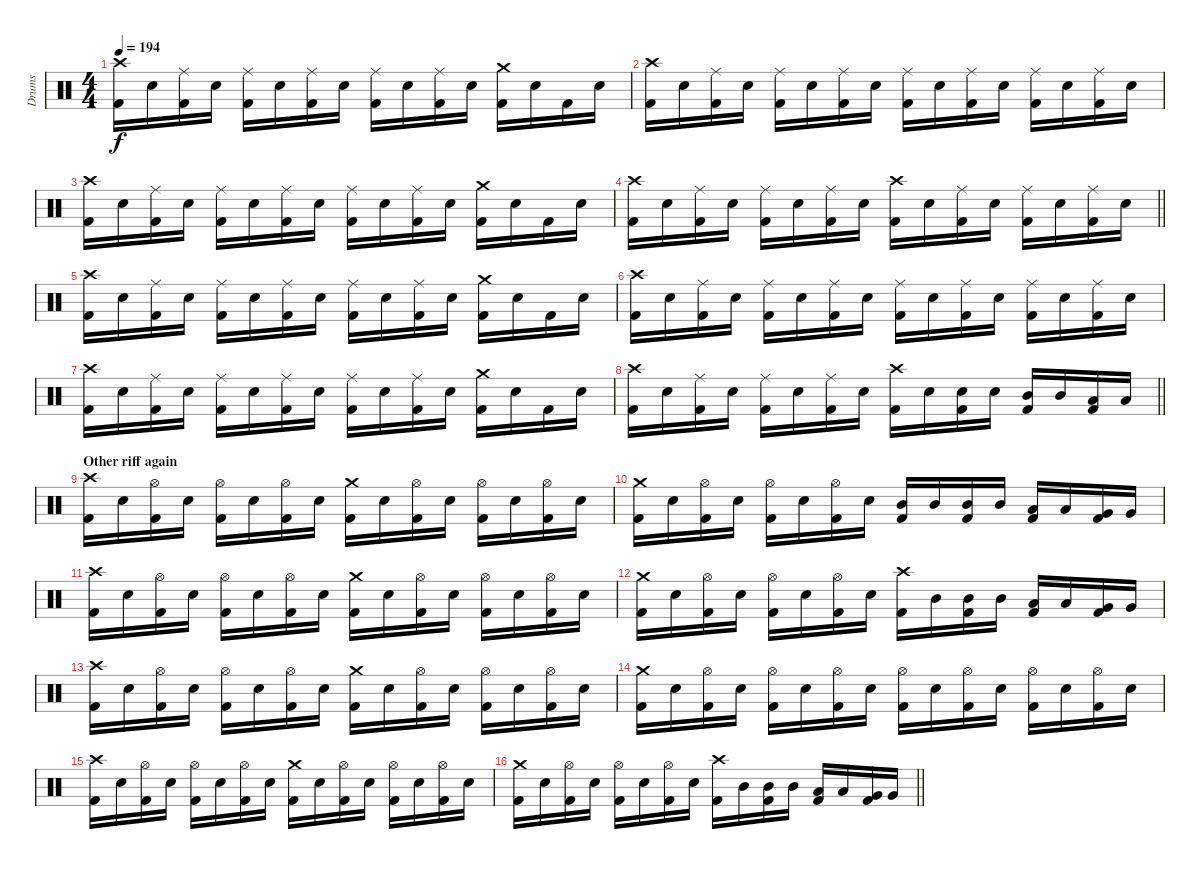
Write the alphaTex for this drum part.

\track ("Drums" "Drums") {instrument percussion}
\staff {score}
\articulation defaults
\ts (4 4)
\tempo 194
\clef neutral
\ks c
("Crash high (hit)" "Kick (hit) 2").16{dy f} "Electric Snare (hit)".16 ("Ride (middle)" "Kick (hit) 2").16 "Electric Snare (hit)".16 ("Ride (middle)" "Kick (hit) 2").16 "Electric Snare (hit)".16 ("Ride (middle)" "Kick (hit) 2").16 "Electric Snare (hit)".16 ("Ride (middle)" "Kick (hit) 2").16 "Electric Snare (hit)".16 ("Ride (middle)" "Kick (hit) 2").16 "Electric Snare (hit)".16 ("Crash medium (hit)" "Kick (hit) 2").16 "Electric Snare (hit)".16 "Kick (hit) 2".16 "Electric Snare (hit)".16 |
("Crash high (hit)" "Kick (hit) 2").16 "Electric Snare (hit)".16 ("Ride (middle)" "Kick (hit) 2").16 "Electric Snare (hit)".16 ("Ride (middle)" "Kick (hit) 2").16 "Electric Snare (hit)".16 ("Ride (middle)" "Kick (hit) 2").16 "Electric Snare (hit)".16 ("Ride (middle)" "Kick (hit) 2").16 "Electric Snare (hit)".16 ("Ride (middle)" "Kick (hit) 2").16 "Electric Snare (hit)".16 ("Ride (middle)" "Kick (hit) 2").16 "Electric Snare (hit)".16 ("Ride (middle)" "Kick (hit) 2").16 "Electric Snare (hit)".16 |
("Crash high (hit)" "Kick (hit) 2").16 "Electric Snare (hit)".16 ("Ride (middle)" "Kick (hit) 2").16 "Electric Snare (hit)".16 ("Ride (middle)" "Kick (hit) 2").16 "Electric Snare (hit)".16 ("Ride (middle)" "Kick (hit) 2").16 "Electric Snare (hit)".16 ("Ride (middle)" "Kick (hit) 2").16 "Electric Snare (hit)".16 ("Ride (middle)" "Kick (hit) 2").16 "Electric Snare (hit)".16 ("Crash medium (hit)" "Kick (hit) 2").16 "Electric Snare (hit)".16 "Kick (hit) 2".16 "Electric Snare (hit)".16 |
\barLineRight lightlight
("Crash high (hit)" "Kick (hit) 2").16 "Electric Snare (hit)".16 ("Ride (middle)" "Kick (hit) 2").16 "Electric Snare (hit)".16 ("Ride (middle)" "Kick (hit) 2").16 "Electric Snare (hit)".16 ("Ride (middle)" "Kick (hit) 2").16 "Electric Snare (hit)".16 ("Crash high (hit)" "Kick (hit) 2").16 "Electric Snare (hit)".16 ("Ride (middle)" "Kick (hit) 2").16 "Electric Snare (hit)".16 ("Ride (middle)" "Kick (hit) 2").16 "Electric Snare (hit)".16 ("Ride (middle)" "Kick (hit) 2").16 "Electric Snare (hit)".16 |
("Crash high (hit)" "Kick (hit) 2").16 "Electric Snare (hit)".16 ("Ride (middle)" "Kick (hit) 2").16 "Electric Snare (hit)".16 ("Ride (middle)" "Kick (hit) 2").16 "Electric Snare (hit)".16 ("Ride (middle)" "Kick (hit) 2").16 "Electric Snare (hit)".16 ("Ride (middle)" "Kick (hit) 2").16 "Electric Snare (hit)".16 ("Ride (middle)" "Kick (hit) 2").16 "Electric Snare (hit)".16 ("Crash medium (hit)" "Kick (hit) 2").16 "Electric Snare (hit)".16 "Kick (hit) 2".16 "Electric Snare (hit)".16 |
("Crash high (hit)" "Kick (hit) 2").16 "Electric Snare (hit)".16 ("Ride (middle)" "Kick (hit) 2").16 "Electric Snare (hit)".16 ("Ride (middle)" "Kick (hit) 2").16 "Electric Snare (hit)".16 ("Ride (middle)" "Kick (hit) 2").16 "Electric Snare (hit)".16 ("Ride (middle)" "Kick (hit) 2").16 "Electric Snare (hit)".16 ("Ride (middle)" "Kick (hit) 2").16 "Electric Snare (hit)".16 ("Ride (middle)" "Kick (hit) 2").16 "Electric Snare (hit)".16 ("Ride (middle)" "Kick (hit) 2").16 "Electric Snare (hit)".16 |
("Crash high (hit)" "Kick (hit) 2").16 "Electric Snare (hit)".16 ("Ride (middle)" "Kick (hit) 2").16 "Electric Snare (hit)".16 ("Ride (middle)" "Kick (hit) 2").16 "Electric Snare (hit)".16 ("Ride (middle)" "Kick (hit) 2").16 "Electric Snare (hit)".16 ("Ride (middle)" "Kick (hit) 2").16 "Electric Snare (hit)".16 ("Ride (middle)" "Kick (hit) 2").16 "Electric Snare (hit)".16 ("Crash medium (hit)" "Kick (hit) 2").16 "Electric Snare (hit)".16 "Kick (hit) 2".16 "Electric Snare (hit)".16 |
\barLineRight lightlight
("Crash high (hit)" "Kick (hit) 2").16 "Electric Snare (hit)".16 ("Ride (middle)" "Kick (hit) 2").16 "Electric Snare (hit)".16 ("Ride (middle)" "Kick (hit) 2").16 "Electric Snare (hit)".16 ("Ride (middle)" "Kick (hit) 2").16 "Electric Snare (hit)".16 ("Crash high (hit)" "Kick (hit) 2").16 "Electric Snare (hit)".16 ("Electric Snare (hit)" "Kick (hit) 2").16 "Electric Snare (hit)".16 ("Mid Tom (hit)" "Kick (hit) 2").16 "Mid Tom (hit)".16 ("Low Tom (hit)" "Kick (hit) 2").16 "Low Tom (hit)".16 |
\section ("" "Other riff again")
("Crash high (hit)" "Kick (hit) 2").16 "Electric Snare (hit)".16 ("Hi-Hat (open)" "Kick (hit) 2").16 "Electric Snare (hit)".16 ("Hi-Hat (open)" "Kick (hit) 2").16 "Electric Snare (hit)".16 ("Hi-Hat (open)" "Kick (hit) 2").16 "Electric Snare (hit)".16 ("Crash medium (hit)" "Kick (hit) 2").16 "Electric Snare (hit)".16 ("Hi-Hat (open)" "Kick (hit) 2").16 "Electric Snare (hit)".16 ("Hi-Hat (open)" "Kick (hit) 2").16 "Electric Snare (hit)".16 ("Hi-Hat (open)" "Kick (hit) 2").16 "Electric Snare (hit)".16 |
("Crash medium (hit)" "Kick (hit) 2").16 "Electric Snare (hit)".16 ("Hi-Hat (open)" "Kick (hit) 2").16 "Electric Snare (hit)".16 ("Hi-Hat (open)" "Kick (hit) 2").16 "Electric Snare (hit)".16 ("Hi-Hat (open)" "Kick (hit) 2").16 "Electric Snare (hit)".16 ("Mid Tom (hit)" "Kick (hit) 2").16 "Mid Tom (hit)".16 ("Mid Tom (hit)" "Kick (hit) 2").16 "Mid Tom (hit)".16 ("Low Tom (hit)" "Kick (hit) 2").16 "Low Tom (hit)".16 ("Very Low Tom (hit)" "Kick (hit) 2").16 "Very Low Tom (hit)".16 |
("Crash high (hit)" "Kick (hit) 2").16 "Electric Snare (hit)".16 ("Hi-Hat (open)" "Kick (hit) 2").16 "Electric Snare (hit)".16 ("Hi-Hat (open)" "Kick (hit) 2").16 "Electric Snare (hit)".16 ("Hi-Hat (open)" "Kick (hit) 2").16 "Electric Snare (hit)".16 ("Crash medium (hit)" "Kick (hit) 2").16 "Electric Snare (hit)".16 ("Hi-Hat (open)" "Kick (hit) 2").16 "Electric Snare (hit)".16 ("Hi-Hat (open)" "Kick (hit) 2").16 "Electric Snare (hit)".16 ("Hi-Hat (open)" "Kick (hit) 2").16 "Electric Snare (hit)".16 |
("Crash medium (hit)" "Kick (hit) 2").16 "Electric Snare (hit)".16 ("Hi-Hat (open)" "Kick (hit) 2").16 "Electric Snare (hit)".16 ("Hi-Hat (open)" "Kick (hit) 2").16 "Electric Snare (hit)".16 ("Hi-Hat (open)" "Kick (hit) 2").16 "Electric Snare (hit)".16 ("Crash high (hit)" "Kick (hit) 2").16 "Mid Tom (hit)".16 ("Mid Tom (hit)" "Kick (hit) 2").16 "Mid Tom (hit)".16 ("Low Tom (hit)" "Kick (hit) 2").16 "Low Tom (hit)".16 ("Very Low Tom (hit)" "Kick (hit) 2").16 "Very Low Tom (hit)".16 |
("Crash high (hit)" "Kick (hit) 2").16 "Electric Snare (hit)".16 ("Hi-Hat (open)" "Kick (hit) 2").16 "Electric Snare (hit)".16 ("Hi-Hat (open)" "Kick (hit) 2").16 "Electric Snare (hit)".16 ("Hi-Hat (open)" "Kick (hit) 2").16 "Electric Snare (hit)".16 ("Crash medium (hit)" "Kick (hit) 2").16 "Electric Snare (hit)".16 ("Hi-Hat (open)" "Kick (hit) 2").16 "Electric Snare (hit)".16 ("Hi-Hat (open)" "Kick (hit) 2").16 "Electric Snare (hit)".16 ("Hi-Hat (open)" "Kick (hit) 2").16 "Electric Snare (hit)".16 |
("Crash medium (hit)" "Kick (hit) 2").16 "Electric Snare (hit)".16 ("Hi-Hat (open)" "Kick (hit) 2").16 "Electric Snare (hit)".16 ("Hi-Hat (open)" "Kick (hit) 2").16 "Electric Snare (hit)".16 ("Hi-Hat (open)" "Kick (hit) 2").16 "Electric Snare (hit)".16 ("Hi-Hat (open)" "Kick (hit) 2").16 "Electric Snare (hit)".16 ("Hi-Hat (open)" "Kick (hit) 2").16 "Electric Snare (hit)".16 ("Hi-Hat (open)" "Kick (hit) 2").16 "Electric Snare (hit)".16 ("Hi-Hat (open)" "Kick (hit) 2").16 "Electric Snare (hit)".16 |
("Crash high (hit)" "Kick (hit) 2").16 "Electric Snare (hit)".16 ("Hi-Hat (open)" "Kick (hit) 2").16 "Electric Snare (hit)".16 ("Hi-Hat (open)" "Kick (hit) 2").16 "Electric Snare (hit)".16 ("Hi-Hat (open)" "Kick (hit) 2").16 "Electric Snare (hit)".16 ("Crash medium (hit)" "Kick (hit) 2").16 "Electric Snare (hit)".16 ("Hi-Hat (open)" "Kick (hit) 2").16 "Electric Snare (hit)".16 ("Hi-Hat (open)" "Kick (hit) 2").16 "Electric Snare (hit)".16 ("Hi-Hat (open)" "Kick (hit) 2").16 "Electric Snare (hit)".16 |
\barLineRight lightlight
("Crash medium (hit)" "Kick (hit) 2").16 "Electric Snare (hit)".16 ("Hi-Hat (open)" "Kick (hit) 2").16 "Electric Snare (hit)".16 ("Hi-Hat (open)" "Kick (hit) 2").16 "Electric Snare (hit)".16 ("Hi-Hat (open)" "Kick (hit) 2").16 "Electric Snare (hit)".16 ("Crash high (hit)" "Kick (hit) 2").16 "Mid Tom (hit)".16 ("Mid Tom (hit)" "Kick (hit) 2").16 "Mid Tom (hit)".16 ("Low Tom (hit)" "Kick (hit) 2").16 "Low Tom (hit)".16 ("Very Low Tom (hit)" "Kick (hit) 2").16 "Very Low Tom (hit)".16
